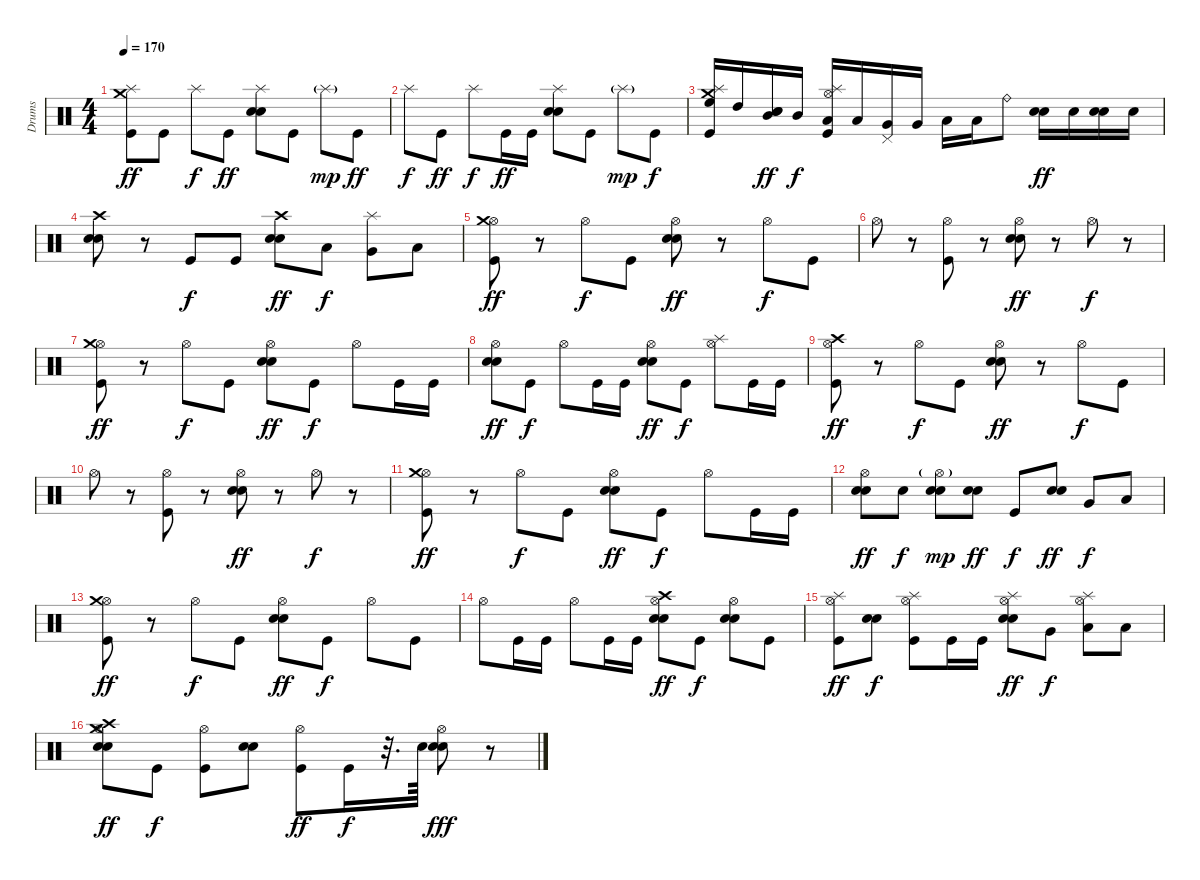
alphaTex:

\track ("Drums" "Drums") {instrument percussion}
\staff {score}
\articulation defaults
\ts (4 4)
\tempo 170
\clef neutral
\ks c
("Kick (hit)" "Splash (hit)" "Crash medium (hit)").8{dy ff} "Kick (hit)".8 "Splash (hit)".8{dy f} "Kick (hit)".8{dy ff} ("Electric Snare (hit)" "Electric Snare (hit)" "Splash (hit)").8 "Kick (hit)".8 "Splash (hit)"{g}.8{dy mp} "Kick (hit)".8{dy ff} |
"Splash (hit)".8{dy f} "Kick (hit)".8{dy ff} "Splash (hit)".8{dy f} "Kick (hit)".16{dy ff} "Kick (hit)".16 ("Electric Snare (hit)" "Electric Snare (hit)" "Splash (hit)").8 "Kick (hit)".8 "Splash (hit)"{g}.8{dy mp} "Kick (hit)".8{dy f} |
("Kick (hit)" "High Floor Tom (hit)" "Splash (hit)" "Crash medium (hit)").16 "High Tom (hit)".16 ("Electric Snare (hit)" "Electric Snare (hit)" "Mid Tom (hit)").16{dy ff} "Mid Tom (hit)".16{dy f} ("Kick (hit)" "Hi-Hat (open)" "Low Tom (hit)" "Splash (hit)").16 "Low Tom (hit)".16 ("Pedal Hi-Hat (hit)" "Very Low Tom (hit)").16 "Very Low Tom (hit)".16 "Low Floor Tom (hit)".16 "Low Floor Tom (hit)".16 "Ride (bell)".8 ("Electric Snare (hit)" "Electric Snare (hit)").16{dy ff} "Electric Snare (hit)".16 ("Electric Snare (hit)" "Electric Snare (hit)").16 "Electric Snare (hit)".16 |
("Electric Snare (hit)" "Electric Snare (hit)" "Crash high (hit)").8 r.8 "Kick (hit)".8{dy f} "Kick (hit)".8 ("Electric Snare (hit)" "Electric Snare (hit)" "Crash high (hit)").8{dy ff} "Low Tom (hit)".8{dy f} ("Very Low Tom (hit)" "Splash (hit)").8 "Low Floor Tom (hit)".8 |
("Kick (hit)" "Hi-Hat (open)" "Crash medium (hit)").8{dy ff} r.8 "Hi-Hat (open)".8{dy f} "Kick (hit)".8 ("Electric Snare (hit)" "Electric Snare (hit)" "Hi-Hat (open)").8{dy ff} r.8 "Hi-Hat (open)".8{dy f} "Kick (hit)".8 |
"Hi-Hat (open)".8 r.8 ("Kick (hit)" "Hi-Hat (open)").8 r.8 ("Electric Snare (hit)" "Electric Snare (hit)" "Hi-Hat (open)").8{dy ff} r.8 "Hi-Hat (open)".8{dy f} r.8 |
("Kick (hit)" "Hi-Hat (open)" "Crash medium (hit)").8{dy ff} r.8 "Hi-Hat (open)".8{dy f} "Kick (hit)".8 ("Electric Snare (hit)" "Electric Snare (hit)" "Hi-Hat (open)").8{dy ff} "Kick (hit)".8{dy f} "Hi-Hat (open)".8 "Kick (hit)".16 "Kick (hit)".16 |
("Electric Snare (hit)" "Electric Snare (hit)" "Hi-Hat (open)").8{dy ff} "Kick (hit)".8{dy f} "Hi-Hat (open)".8 "Kick (hit)".16 "Kick (hit)".16 ("Electric Snare (hit)" "Electric Snare (hit)" "Hi-Hat (open)").8{dy ff} "Kick (hit)".8{dy f} ("Hi-Hat (open)" "Splash (hit)").8 "Kick (hit)".16 "Kick (hit)".16 |
("Kick (hit)" "Hi-Hat (open)" "Crash high (hit)").8{dy ff} r.8 "Hi-Hat (open)".8{dy f} "Kick (hit)".8 ("Electric Snare (hit)" "Electric Snare (hit)" "Hi-Hat (open)").8{dy ff} r.8 "Hi-Hat (open)".8{dy f} "Kick (hit)".8 |
"Hi-Hat (open)".8 r.8 ("Kick (hit)" "Hi-Hat (open)").8 r.8 ("Electric Snare (hit)" "Electric Snare (hit)" "Hi-Hat (open)").8{dy ff} r.8 "Hi-Hat (open)".8{dy f} r.8 |
("Kick (hit)" "Hi-Hat (open)" "Crash medium (hit)").8{dy ff} r.8 "Hi-Hat (open)".8{dy f} "Kick (hit)".8 ("Electric Snare (hit)" "Electric Snare (hit)" "Hi-Hat (open)").8{dy ff} "Kick (hit)".8{dy f} "Hi-Hat (open)".8 "Kick (hit)".16 "Kick (hit)".16 |
("Electric Snare (hit)" "Electric Snare (hit)" "Hi-Hat (open)").8{dy ff} "Electric Snare (hit)".8{dy f} ("Electric Snare (hit)" "Electric Snare (hit)" "Hi-Hat (open)"{g}).8{dy mp} ("Electric Snare (hit)" "Electric Snare (hit)").8{dy ff} "Kick (hit)".8{dy f} ("Electric Snare (hit)" "Electric Snare (hit)").8{dy ff} "Very Low Tom (hit)".8{dy f} "Low Floor Tom (hit)".8 |
("Kick (hit)" "Hi-Hat (open)" "Crash medium (hit)").8{dy ff} r.8 "Hi-Hat (open)".8{dy f} "Kick (hit)".8 ("Electric Snare (hit)" "Electric Snare (hit)" "Hi-Hat (open)").8{dy ff} "Kick (hit)".8{dy f} "Hi-Hat (open)".8 "Kick (hit)".8 |
"Hi-Hat (open)".8 "Kick (hit)".16 "Kick (hit)".16 "Hi-Hat (open)".8 "Kick (hit)".16 "Kick (hit)".16 ("Electric Snare (hit)" "Electric Snare (hit)" "Hi-Hat (open)" "Crash high (hit)").8{dy ff} "Kick (hit)".8{dy f} ("Electric Snare (hit)" "Electric Snare (hit)" "Hi-Hat (open)").8 "Kick (hit)".8 |
("Kick (hit)" "Hi-Hat (open)" "Splash (hit)").8{dy ff} ("Electric Snare (hit)" "Electric Snare (hit)").8{dy f} ("Kick (hit)" "Hi-Hat (open)" "Splash (hit)").8 "Kick (hit)".16 "Kick (hit)".16 ("Electric Snare (hit)" "Electric Snare (hit)" "Hi-Hat (open)" "Splash (hit)").8{dy ff} "Very Low Tom (hit)".8{dy f} ("Low Tom (hit)" "Hi-Hat (open)" "Splash (hit)").8 "Low Floor Tom (hit)".8 |
("Electric Snare (hit)" "Electric Snare (hit)" "Hi-Hat (open)" "Crash high (hit)" "Crash medium (hit)").8{dy ff} "Kick (hit)".8{dy f} ("Kick (hit)" "Hi-Hat (open)").8 ("Electric Snare (hit)" "Electric Snare (hit)").8 ("Kick (hit)" "Hi-Hat (open)").8{dy ff} "Kick (hit)".16{dy f} r.32{d} "Electric Snare (hit)".64 ("Electric Snare (hit)" "Electric Snare (hit)" "Hi-Hat (open)").8{dy fff} r.8
